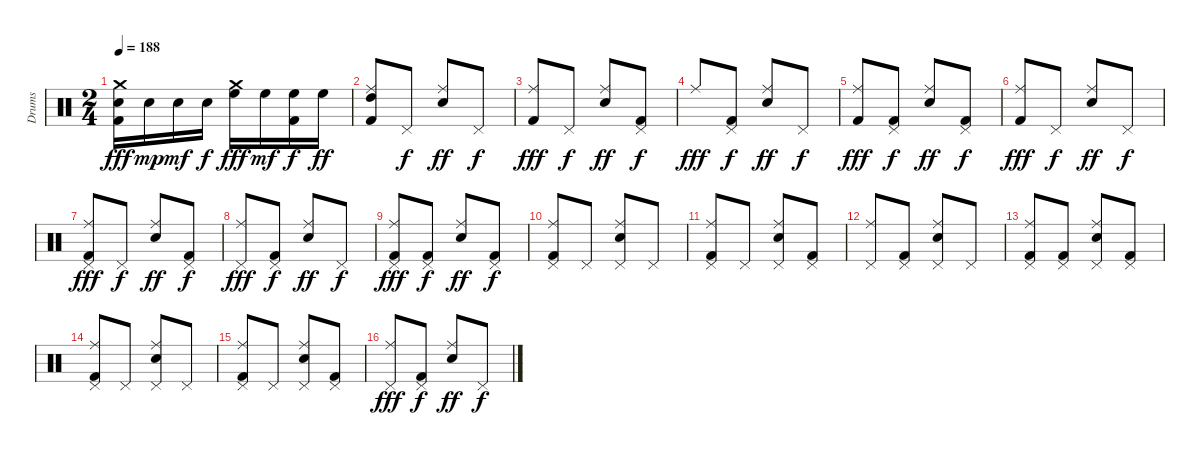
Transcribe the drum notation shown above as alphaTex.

\track ("Drums" "Drums") {instrument percussion}
\staff {score}
\articulation defaults
\ts (2 4)
\tempo 188
\clef neutral
\ks c
("Crash medium (hit)" "Snare (hit) 2" "Kick (hit) 2").16{dy fff} "Snare (hit) 2".16{dy mp} "Snare (hit) 2".16{dy mf} "Snare (hit) 2".16{dy f} ("Crash medium (hit)" "High Floor Tom (hit)").16{dy fff} "High Floor Tom (hit)".16{dy mf} ("High Floor Tom (hit)" "Kick (hit) 2").16{dy f} "High Floor Tom (hit)".16{dy ff} |
("Ride (middle)" "High Tom (hit)" "Kick (hit) 2").8 "Pedal Hi-Hat (hit)".8{dy f} ("Ride (middle)" "Snare (hit) 2").8{dy ff} "Pedal Hi-Hat (hit)".8{dy f} |
("Ride (middle)" "Kick (hit) 2").8{dy fff} "Pedal Hi-Hat (hit)".8{dy f} ("Ride (middle)" "Snare (hit) 2").8{dy ff} ("Pedal Hi-Hat (hit)" "Kick (hit) 2").8{dy f} |
"Ride (middle)".8{dy fff} ("Pedal Hi-Hat (hit)" "Kick (hit) 2").8{dy f} ("Ride (middle)" "Snare (hit) 2").8{dy ff} "Pedal Hi-Hat (hit)".8{dy f} |
("Ride (middle)" "Kick (hit) 2").8{dy fff} ("Pedal Hi-Hat (hit)" "Kick (hit) 2").8{dy f} ("Ride (middle)" "Snare (hit) 2").8{dy ff} ("Pedal Hi-Hat (hit)" "Kick (hit) 2").8{dy f} |
("Ride (middle)" "Kick (hit) 2").8{dy fff} "Pedal Hi-Hat (hit)".8{dy f} ("Ride (middle)" "Snare (hit) 2").8{dy ff} "Pedal Hi-Hat (hit)".8{dy f} |
("Ride (middle)" "Pedal Hi-Hat (hit)" "Kick (hit) 2").8{dy fff} "Pedal Hi-Hat (hit)".8{dy f} ("Ride (middle)" "Snare (hit) 2").8{dy ff} ("Pedal Hi-Hat (hit)" "Kick (hit) 2").8{dy f} |
("Ride (middle)" "Pedal Hi-Hat (hit)").8{dy fff} ("Pedal Hi-Hat (hit)" "Kick (hit) 2").8{dy f} ("Ride (middle)" "Snare (hit) 2").8{dy ff} "Pedal Hi-Hat (hit)".8{dy f} |
("Ride (middle)" "Pedal Hi-Hat (hit)" "Kick (hit) 2").8{dy fff} ("Pedal Hi-Hat (hit)" "Kick (hit) 2").8{dy f} ("Ride (middle)" "Snare (hit) 2").8{dy ff} ("Pedal Hi-Hat (hit)" "Kick (hit) 2").8{dy f} |
("Ride (middle)" "Pedal Hi-Hat (hit)" "Kick (hit) 2").8 "Pedal Hi-Hat (hit)".8 ("Ride (middle)" "Pedal Hi-Hat (hit)" "Snare (hit) 2").8 "Pedal Hi-Hat (hit)".8 |
("Ride (middle)" "Pedal Hi-Hat (hit)" "Kick (hit) 2").8 "Pedal Hi-Hat (hit)".8 ("Ride (middle)" "Pedal Hi-Hat (hit)" "Snare (hit) 2").8 ("Pedal Hi-Hat (hit)" "Kick (hit) 2").8 |
("Ride (middle)" "Pedal Hi-Hat (hit)").8 ("Pedal Hi-Hat (hit)" "Kick (hit) 2").8 ("Ride (middle)" "Pedal Hi-Hat (hit)" "Snare (hit) 2").8 "Pedal Hi-Hat (hit)".8 |
("Ride (middle)" "Pedal Hi-Hat (hit)" "Kick (hit) 2").8 ("Pedal Hi-Hat (hit)" "Kick (hit) 2").8 ("Ride (middle)" "Pedal Hi-Hat (hit)" "Snare (hit) 2").8 ("Pedal Hi-Hat (hit)" "Kick (hit) 2").8 |
("Ride (middle)" "Pedal Hi-Hat (hit)" "Kick (hit) 2").8 "Pedal Hi-Hat (hit)".8 ("Ride (middle)" "Pedal Hi-Hat (hit)" "Snare (hit) 2").8 "Pedal Hi-Hat (hit)".8 |
("Ride (middle)" "Pedal Hi-Hat (hit)" "Kick (hit) 2").8 "Pedal Hi-Hat (hit)".8 ("Ride (middle)" "Pedal Hi-Hat (hit)" "Snare (hit) 2").8 ("Pedal Hi-Hat (hit)" "Kick (hit) 2").8 |
("Ride (middle)" "Pedal Hi-Hat (hit)").8{dy fff} ("Pedal Hi-Hat (hit)" "Kick (hit) 2").8{dy f} ("Ride (middle)" "Snare (hit) 2").8{dy ff} "Pedal Hi-Hat (hit)".8{dy f}
